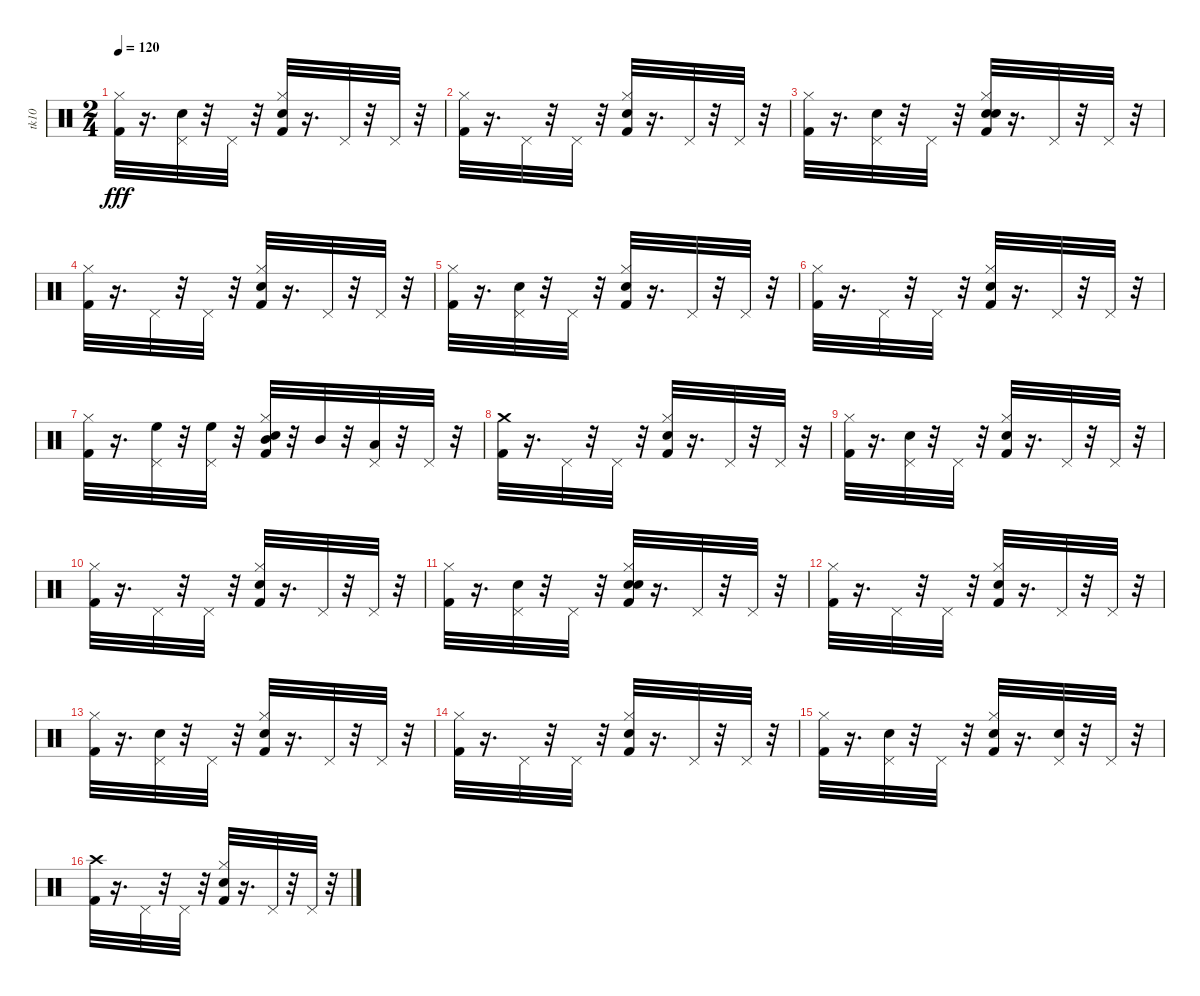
\track ("tk10" "tk10") {instrument percussion}
\staff {score}
\articulation defaults
\ts (2 4)
\tempo 120
\clef neutral
\ks c
("Kick (hit) 2" "Hi-Hat (closed)").32{dy fff} r.16{d} ("Pedal Hi-Hat (hit)" "Hand Clap (hit)").32 r.32 "Pedal Hi-Hat (hit)".32 r.32 ("Snare (hit) 2" "Kick (hit) 2" "Hi-Hat (closed)").32 r.16{d} "Pedal Hi-Hat (hit)".32 r.32 "Pedal Hi-Hat (hit)".32 r.32 |
("Kick (hit) 2" "Hi-Hat (closed)").32 r.16{d} "Pedal Hi-Hat (hit)".32 r.32 "Pedal Hi-Hat (hit)".32 r.32 ("Snare (hit) 2" "Kick (hit) 2" "Hi-Hat (closed)").32 r.16{d} "Pedal Hi-Hat (hit)".32 r.32 "Pedal Hi-Hat (hit)".32 r.32 |
("Kick (hit) 2" "Hi-Hat (closed)").32 r.16{d} ("Hand Clap (hit)" "Pedal Hi-Hat (hit)").32 r.32 "Pedal Hi-Hat (hit)".32 r.32 ("Snare (hit) 2" "Kick (hit) 2" "Hand Clap (hit)" "Hi-Hat (closed)").32 r.16{d} "Pedal Hi-Hat (hit)".32 r.32 "Pedal Hi-Hat (hit)".32 r.32 |
("Kick (hit) 2" "Hi-Hat (closed)").32 r.16{d} "Pedal Hi-Hat (hit)".32 r.32 "Pedal Hi-Hat (hit)".32 r.32 ("Kick (hit) 2" "Snare (hit) 2" "Hi-Hat (closed)").32 r.16{d} "Pedal Hi-Hat (hit)".32 r.32 "Pedal Hi-Hat (hit)".32 r.32 |
("Kick (hit) 2" "Hi-Hat (closed)").32 r.16{d} ("Hand Clap (hit)" "Pedal Hi-Hat (hit)").32 r.32 "Pedal Hi-Hat (hit)".32 r.32 ("Kick (hit) 2" "Snare (hit) 2" "Hi-Hat (closed)").32 r.16{d} "Pedal Hi-Hat (hit)".32 r.32 "Pedal Hi-Hat (hit)".32 r.32 |
("Kick (hit) 2" "Hi-Hat (closed)").32 r.16{d} "Pedal Hi-Hat (hit)".32 r.32 "Pedal Hi-Hat (hit)".32 r.32 ("Snare (hit) 2" "Kick (hit) 2" "Hi-Hat (closed)").32 r.16{d} "Pedal Hi-Hat (hit)".32 r.32 "Pedal Hi-Hat (hit)".32 r.32 |
("Kick (hit) 2" "Hi-Hat (closed)").32 r.16{d} ("High Floor Tom (hit)" "Pedal Hi-Hat (hit)").32 r.32 ("High Floor Tom (hit)" "Pedal Hi-Hat (hit)").32 r.32 ("Snare (hit) 2" "Kick (hit) 2" "Mid Tom (hit)" "Hi-Hat (closed)").32 r.32 "Mid Tom (hit)".32 r.32 ("Low Tom (hit)" "Pedal Hi-Hat (hit)").32 r.32 "Pedal Hi-Hat (hit)".32 r.32 |
("Kick (hit) 2" "Crash medium (hit)").32 r.16{d} "Pedal Hi-Hat (hit)".32 r.32 "Pedal Hi-Hat (hit)".32 r.32 ("Snare (hit) 2" "Kick (hit) 2" "Hi-Hat (closed)").32 r.16{d} "Pedal Hi-Hat (hit)".32 r.32 "Pedal Hi-Hat (hit)".32 r.32 |
("Kick (hit) 2" "Hi-Hat (closed)").32 r.16{d} ("Pedal Hi-Hat (hit)" "Hand Clap (hit)").32 r.32 "Pedal Hi-Hat (hit)".32 r.32 ("Snare (hit) 2" "Kick (hit) 2" "Hi-Hat (closed)").32 r.16{d} "Pedal Hi-Hat (hit)".32 r.32 "Pedal Hi-Hat (hit)".32 r.32 |
("Kick (hit) 2" "Hi-Hat (closed)").32 r.16{d} "Pedal Hi-Hat (hit)".32 r.32 "Pedal Hi-Hat (hit)".32 r.32 ("Snare (hit) 2" "Kick (hit) 2" "Hi-Hat (closed)").32 r.16{d} "Pedal Hi-Hat (hit)".32 r.32 "Pedal Hi-Hat (hit)".32 r.32 |
("Kick (hit) 2" "Hi-Hat (closed)").32 r.16{d} ("Hand Clap (hit)" "Pedal Hi-Hat (hit)").32 r.32 "Pedal Hi-Hat (hit)".32 r.32 ("Snare (hit) 2" "Kick (hit) 2" "Hand Clap (hit)" "Hi-Hat (closed)").32 r.16{d} "Pedal Hi-Hat (hit)".32 r.32 "Pedal Hi-Hat (hit)".32 r.32 |
("Kick (hit) 2" "Hi-Hat (closed)").32 r.16{d} "Pedal Hi-Hat (hit)".32 r.32 "Pedal Hi-Hat (hit)".32 r.32 ("Kick (hit) 2" "Snare (hit) 2" "Hi-Hat (closed)").32 r.16{d} "Pedal Hi-Hat (hit)".32 r.32 "Pedal Hi-Hat (hit)".32 r.32 |
("Kick (hit) 2" "Hi-Hat (closed)").32 r.16{d} ("Hand Clap (hit)" "Pedal Hi-Hat (hit)").32 r.32 "Pedal Hi-Hat (hit)".32 r.32 ("Kick (hit) 2" "Snare (hit) 2" "Hi-Hat (closed)").32 r.16{d} "Pedal Hi-Hat (hit)".32 r.32 "Pedal Hi-Hat (hit)".32 r.32 |
("Kick (hit) 2" "Hi-Hat (closed)").32 r.16{d} "Pedal Hi-Hat (hit)".32 r.32 "Pedal Hi-Hat (hit)".32 r.32 ("Snare (hit) 2" "Kick (hit) 2" "Hi-Hat (closed)").32 r.16{d} "Pedal Hi-Hat (hit)".32 r.32 "Pedal Hi-Hat (hit)".32 r.32 |
("Kick (hit) 2" "Hi-Hat (closed)").32 r.16{d} ("Hand Clap (hit)" "Pedal Hi-Hat (hit)").32 r.32 "Pedal Hi-Hat (hit)".32 r.32 ("Snare (hit) 2" "Kick (hit) 2" "Hi-Hat (closed)").32 r.16{d} ("Hand Clap (hit)" "Pedal Hi-Hat (hit)").32 r.32 "Pedal Hi-Hat (hit)".32 r.32 |
("Kick (hit) 2" "Crash high (hit)").32 r.16{d} "Pedal Hi-Hat (hit)".32 r.32 "Pedal Hi-Hat (hit)".32 r.32 ("Snare (hit) 2" "Kick (hit) 2" "Hi-Hat (closed)").32 r.16{d} "Pedal Hi-Hat (hit)".32 r.32 "Pedal Hi-Hat (hit)".32 r.32
